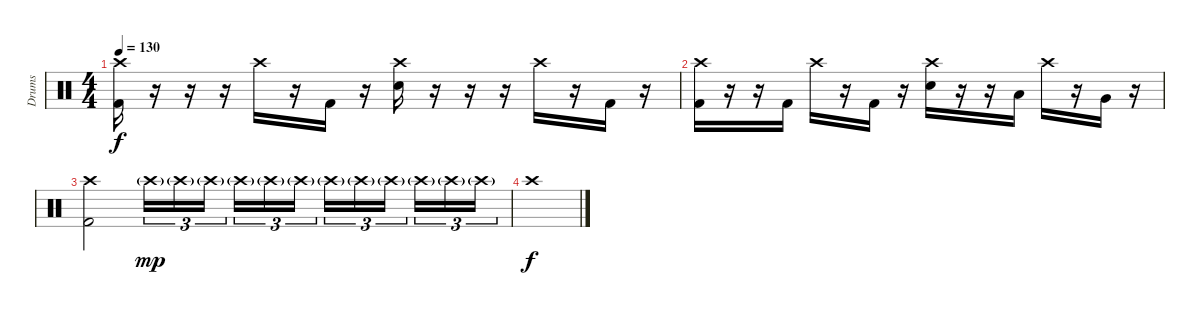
\track ("Drums" "Drums") {instrument percussion}
\staff {score}
\articulation defaults
\ts (4 4)
\tempo 130
\clef neutral
\ks c
("Crash high (hit)" "Kick (hit) 2").16{dy f} r.16 r.16 r.16 "Crash high (hit)".16 r.16 "Kick (hit) 2".16 r.16 ("Crash high (hit)" "Electric Snare (hit)").16 r.16 r.16 r.16 "Crash high (hit)".16 r.16 "Kick (hit) 2".16 r.16 |
("Crash high (hit)" "Kick (hit) 2").16 r.16 r.16 "Kick (hit) 2".16 "Crash high (hit)".16 r.16 "Kick (hit) 2".16 r.16 ("Crash high (hit)" "Electric Snare (hit)").16 r.16 r.16 "Low Tom (hit)".16 "Crash high (hit)".16 r.16 "Very Low Tom (hit)".16 r.16 |
("Crash high (hit)" "Kick (hit) 2").2 "Crash high (hit)"{g}.16{tu (3 2) dy mp} "Crash high (hit)"{g}.16{tu (3 2)} "Crash high (hit)"{g}.16{tu (3 2) beam splitsecondary} "Crash high (hit)"{g}.16{tu (3 2)} "Crash high (hit)"{g}.16{tu (3 2)} "Crash high (hit)"{g}.16{tu (3 2)} "Crash high (hit)"{g}.16{tu (3 2)} "Crash high (hit)"{g}.16{tu (3 2)} "Crash high (hit)"{g}.16{tu (3 2) beam splitsecondary} "Crash high (hit)"{g}.16{tu (3 2)} "Crash high (hit)"{g}.16{tu (3 2)} "Crash high (hit)"{g}.16{tu (3 2)} |
"Crash high (hit)".1{dy f}
